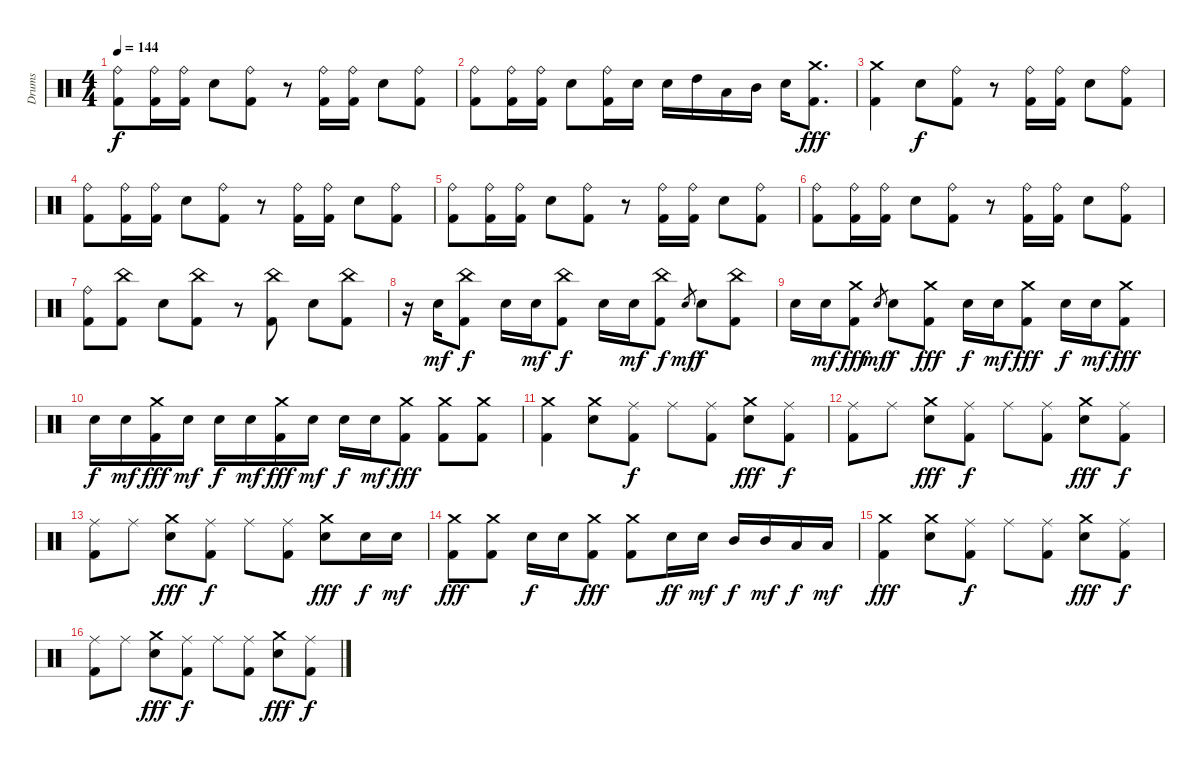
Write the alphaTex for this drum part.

\bracketExtendMode groupsimilarinstruments
\otherSystemsTrackNameOrientation horizontal
\track ("Drumkit" "Drums") {instrument percussion}
\staff {score}
\articulation defaults
\ts (4 4)
\tempo 144
\clef neutral
\ks c
("Ride (bell)" "Kick (hit) 2").8{dy f beam Down} ("Ride (bell)" "Kick (hit) 2").16{beam Down} ("Ride (bell)" "Kick (hit) 2").16{beam Down} "Snare (hit) 2".8{beam Down} ("Ride (bell)" "Kick (hit) 2").8{beam Down} r.8{beam Down} ("Ride (bell)" "Kick (hit) 2").16{beam Down} ("Ride (bell)" "Kick (hit) 2").16{beam Down} "Snare (hit) 2".8{beam Down} ("Ride (bell)" "Kick (hit) 2").8{beam Down} |
("Ride (bell)" "Kick (hit) 2").8{beam Down} ("Ride (bell)" "Kick (hit) 2").16{beam Down} ("Ride (bell)" "Kick (hit) 2").16{beam Down} "Snare (hit) 2".8{beam Down} ("Ride (bell)" "Kick (hit) 2").16{beam Down} "Snare (hit) 2".16{beam Down} "Snare (hit) 2".16{beam Down} "High Tom (hit)".16{beam Down} "Low Tom (hit)".16{beam Down} "Mid Tom (hit)".16{beam Down} "Snare (hit) 2".16{beam Down} ("Crash medium (hit)" "Kick (hit) 2").8{d dy fff beam Down} |
("Crash medium (hit)" "Kick (hit) 2").4{beam Down} "Snare (hit) 2".8{dy f beam Down} ("Ride (bell)" "Kick (hit) 2").8{beam Down} r.8{beam Down} ("Ride (bell)" "Kick (hit) 2").16{beam Down} ("Ride (bell)" "Kick (hit) 2").16{beam Down} "Snare (hit) 2".8{beam Down} ("Ride (bell)" "Kick (hit) 2").8{beam Down} |
("Ride (bell)" "Kick (hit) 2").8{beam Down} ("Ride (bell)" "Kick (hit) 2").16{beam Down} ("Ride (bell)" "Kick (hit) 2").16{beam Down} "Snare (hit) 2".8{beam Down} ("Ride (bell)" "Kick (hit) 2").8{beam Down} r.8{beam Down} ("Ride (bell)" "Kick (hit) 2").16{beam Down} ("Ride (bell)" "Kick (hit) 2").16{beam Down} "Snare (hit) 2".8{beam Down} ("Ride (bell)" "Kick (hit) 2").8{beam Down} |
("Ride (bell)" "Kick (hit) 2").8{beam Down} ("Ride (bell)" "Kick (hit) 2").16{beam Down} ("Ride (bell)" "Kick (hit) 2").16{beam Down} "Snare (hit) 2".8{beam Down} ("Ride (bell)" "Kick (hit) 2").8{beam Down} r.8{beam Down} ("Ride (bell)" "Kick (hit) 2").16{beam Down} ("Ride (bell)" "Kick (hit) 2").16{beam Down} "Snare (hit) 2".8{beam Down} ("Ride (bell)" "Kick (hit) 2").8{beam Down} |
("Ride (bell)" "Kick (hit) 2").8{beam Down} ("Ride (bell)" "Kick (hit) 2").16{beam Down} ("Ride (bell)" "Kick (hit) 2").16{beam Down} "Snare (hit) 2".8{beam Down} ("Ride (bell)" "Kick (hit) 2").8{beam Down} r.8{beam Down} ("Ride (bell)" "Kick (hit) 2").16{beam Down} ("Ride (bell)" "Kick (hit) 2").16{beam Down} "Snare (hit) 2".8{beam Down} ("Ride (bell)" "Kick (hit) 2").8{beam Down} |
("Ride (bell)" "Kick (hit) 2").8{beam Down} ("China (hit)" "Kick (hit) 2").8{beam Down} "Snare (hit) 2".8{beam Down} ("China (hit)" "Kick (hit) 2").8{beam Down} r.8{beam Down} ("China (hit)" "Kick (hit) 2").8{beam Down} "Snare (hit) 2".8{beam Down} ("China (hit)" "Kick (hit) 2").8{beam Down} |
r.16{beam Down} "Snare (hit) 2".16{dy mf beam Down} ("China (hit)" "Kick (hit) 2").8{dy f beam Down} "Snare (hit) 2".16{beam Down} "Snare (hit) 2".16{dy mf beam Down} ("China (hit)" "Kick (hit) 2").8{dy f beam Down} "Snare (hit) 2".16{beam Down} "Snare (hit) 2".16{dy mf beam Down} ("China (hit)" "Kick (hit) 2").8{dy f beam Down} "Snare (hit) 2".8{gr dy mf beam Up} "Snare (hit) 2".8{dy f beam Down} ("China (hit)" "Kick (hit) 2").8{beam Down} |
"Snare (hit) 2".16{beam Down} "Snare (hit) 2".16{dy mf beam Down} ("Crash medium (hit)" "Kick (hit) 2").8{dy fff beam Down} "Snare (hit) 2".8{gr dy mf beam Up} "Snare (hit) 2".8{dy f beam Down} ("Crash medium (hit)" "Kick (hit) 2").8{dy fff beam Down} "Snare (hit) 2".16{dy f beam Down} "Snare (hit) 2".16{dy mf beam Down} ("Crash medium (hit)" "Kick (hit) 2").8{dy fff beam Down} "Snare (hit) 2".16{dy f beam Down} "Snare (hit) 2".16{dy mf beam Down} ("Crash medium (hit)" "Kick (hit) 2").8{dy fff beam Down} |
"Snare (hit) 2".16{dy f beam Down} "Snare (hit) 2".16{dy mf beam Down} ("Crash medium (hit)" "Kick (hit) 2").16{dy fff beam Down} "Snare (hit) 2".16{dy mf beam Down} "Snare (hit) 2".16{dy f beam Down} "Snare (hit) 2".16{dy mf beam Down} ("Crash medium (hit)" "Kick (hit) 2").16{dy fff beam Down} "Snare (hit) 2".16{dy mf beam Down} "Snare (hit) 2".16{dy f beam Down} "Snare (hit) 2".16{dy mf beam Down} ("Crash medium (hit)" "Kick (hit) 2").8{dy fff beam Down} ("Crash medium (hit)" "Kick (hit) 2").8{beam Down} ("Crash medium (hit)" "Kick (hit) 2").8{beam Down} |
("Crash medium (hit)" "Kick (hit) 2").4{beam Down} ("Crash medium (hit)" "Snare (hit) 2").8{beam Down} ("Ride (middle)" "Kick (hit) 2").8{dy f beam Down} "Ride (middle)".8{beam Down} ("Ride (middle)" "Kick (hit) 2").8{beam Down} ("Crash medium (hit)" "Snare (hit) 2").8{dy fff beam Down} ("Ride (middle)" "Kick (hit) 2").8{dy f beam Down} |
("Ride (middle)" "Kick (hit) 2").8{beam Down} "Ride (middle)".8{beam Down} ("Crash medium (hit)" "Snare (hit) 2").8{dy fff beam Down} ("Ride (middle)" "Kick (hit) 2").8{dy f beam Down} "Ride (middle)".8{beam Down} ("Ride (middle)" "Kick (hit) 2").8{beam Down} ("Crash medium (hit)" "Snare (hit) 2").8{dy fff beam Down} ("Ride (middle)" "Kick (hit) 2").8{dy f beam Down} |
("Ride (middle)" "Kick (hit) 2").8{beam Down} "Ride (middle)".8{beam Down} ("Crash medium (hit)" "Snare (hit) 2").8{dy fff beam Down} ("Ride (middle)" "Kick (hit) 2").8{dy f beam Down} "Ride (middle)".8{beam Down} ("Ride (middle)" "Kick (hit) 2").8{beam Down} ("Crash medium (hit)" "Snare (hit) 2").8{dy fff beam Down} "Snare (hit) 2".16{dy f beam Down} "Snare (hit) 2".16{dy mf beam Down} |
("Crash medium (hit)" "Kick (hit) 2").8{dy fff beam Down} ("Crash medium (hit)" "Kick (hit) 2").8{beam Down} "Snare (hit) 2".16{dy f beam Down} "Snare (hit) 2".16{beam Down} ("Crash medium (hit)" "Kick (hit) 2").8{dy fff beam Down} ("Crash medium (hit)" "Kick (hit) 2").8{beam Down} "Snare (hit) 2".16{dy ff beam Down} "Snare (hit) 2".16{dy mf beam Down} "Mid Tom (hit)".16{dy f beam Up} "Mid Tom (hit)".16{dy mf beam Up} "Low Tom (hit)".16{dy f beam Up} "Low Tom (hit)".16{dy mf beam Up} |
("Crash medium (hit)" "Kick (hit) 2").4{dy fff beam Down} ("Crash medium (hit)" "Snare (hit) 2").8{beam Down} ("Ride (middle)" "Kick (hit) 2").8{dy f beam Down} "Ride (middle)".8{beam Down} ("Ride (middle)" "Kick (hit) 2").8{beam Down} ("Crash medium (hit)" "Snare (hit) 2").8{dy fff beam Down} ("Ride (middle)" "Kick (hit) 2").8{dy f beam Down} |
("Ride (middle)" "Kick (hit) 2").8{beam Down} "Ride (middle)".8{beam Down} ("Crash medium (hit)" "Snare (hit) 2").8{dy fff beam Down} ("Ride (middle)" "Kick (hit) 2").8{dy f beam Down} "Ride (middle)".8{beam Down} ("Ride (middle)" "Kick (hit) 2").8{beam Down} ("Crash medium (hit)" "Snare (hit) 2").8{dy fff beam Down} ("Ride (middle)" "Kick (hit) 2").8{dy f beam Down}
